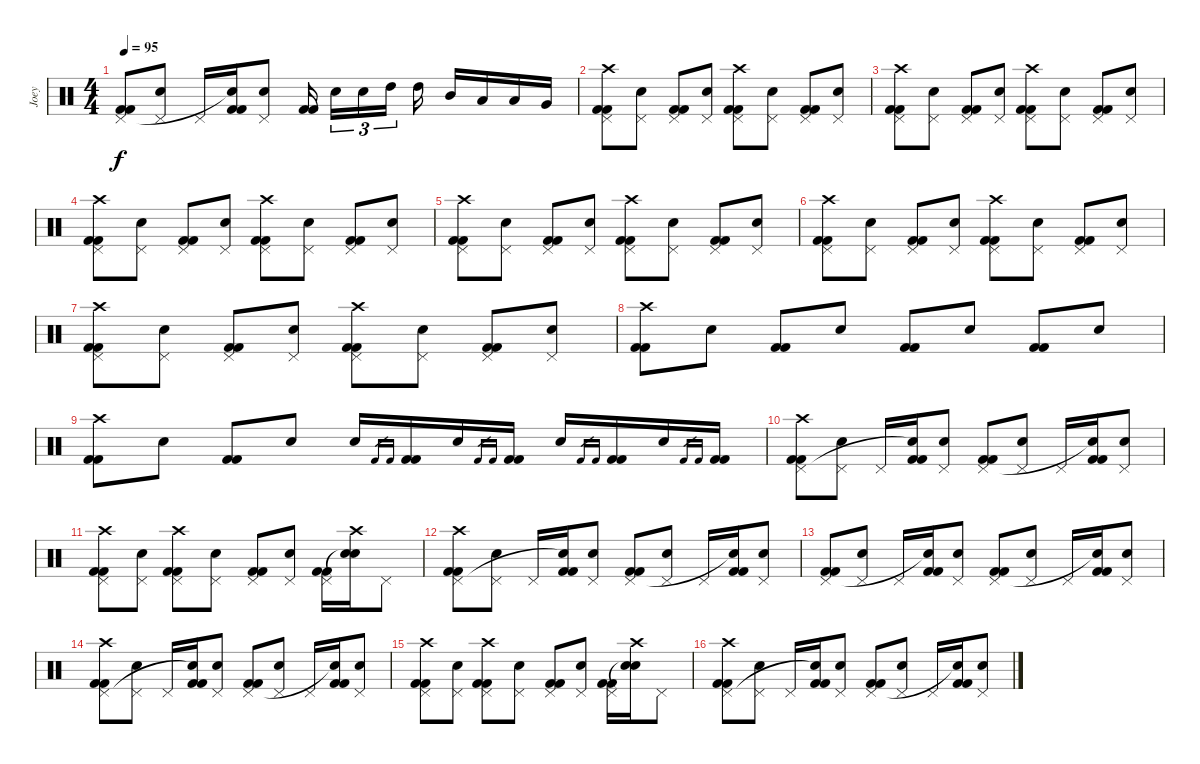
\track ("Joey" "Joey") {instrument percussion}
\staff {score}
\articulation defaults
\ts (4 4)
\tempo 95
\clef neutral
\ks c
("Kick (hit) 2" "Kick (hit) 2" "Pedal Hi-Hat (hit)").8{dy f} ("Electric Snare (hit)" "Pedal Hi-Hat (hit)").8 "Pedal Hi-Hat (hit)".16 ("Kick (hit) 2" "Kick (hit) 2" "Snare (hit)"{t}).16 ("Electric Snare (hit)" "Pedal Hi-Hat (hit)").8 ("Kick (hit) 2" "Kick (hit) 2").16 "Electric Snare (hit)".16{tu (3 2)} "Electric Snare (hit)".16{tu (3 2)} "High Tom (hit)".16{tu (3 2)} "High Tom (hit)".16 "Mid Tom (hit)".16 "Low Tom (hit)".16 "Low Tom (hit)".16 "Very Low Tom (hit)".16 |
("Kick (hit) 2" "Kick (hit) 2" "Crash high (hit)" "Pedal Hi-Hat (hit)").8 ("Electric Snare (hit)" "Pedal Hi-Hat (hit)").8 ("Kick (hit) 2" "Kick (hit) 2" "Pedal Hi-Hat (hit)").8 ("Electric Snare (hit)" "Pedal Hi-Hat (hit)").8 ("Kick (hit) 2" "Kick (hit) 2" "Crash high (hit)" "Pedal Hi-Hat (hit)").8 ("Electric Snare (hit)" "Pedal Hi-Hat (hit)").8 ("Kick (hit) 2" "Kick (hit) 2" "Pedal Hi-Hat (hit)").8 ("Electric Snare (hit)" "Pedal Hi-Hat (hit)").8 |
("Kick (hit) 2" "Kick (hit) 2" "Crash high (hit)" "Pedal Hi-Hat (hit)").8 ("Electric Snare (hit)" "Pedal Hi-Hat (hit)").8 ("Kick (hit) 2" "Kick (hit) 2" "Pedal Hi-Hat (hit)").8 ("Electric Snare (hit)" "Pedal Hi-Hat (hit)").8 ("Kick (hit) 2" "Kick (hit) 2" "Crash high (hit)" "Pedal Hi-Hat (hit)").8 ("Electric Snare (hit)" "Pedal Hi-Hat (hit)").8 ("Kick (hit) 2" "Kick (hit) 2" "Pedal Hi-Hat (hit)").8 ("Electric Snare (hit)" "Pedal Hi-Hat (hit)").8 |
("Kick (hit) 2" "Kick (hit) 2" "Crash high (hit)" "Pedal Hi-Hat (hit)").8 ("Electric Snare (hit)" "Pedal Hi-Hat (hit)").8 ("Kick (hit) 2" "Kick (hit) 2" "Pedal Hi-Hat (hit)").8 ("Electric Snare (hit)" "Pedal Hi-Hat (hit)").8 ("Kick (hit) 2" "Kick (hit) 2" "Crash high (hit)" "Pedal Hi-Hat (hit)").8 ("Electric Snare (hit)" "Pedal Hi-Hat (hit)").8 ("Kick (hit) 2" "Kick (hit) 2" "Pedal Hi-Hat (hit)").8 ("Electric Snare (hit)" "Pedal Hi-Hat (hit)").8 |
("Kick (hit) 2" "Kick (hit) 2" "Crash high (hit)" "Pedal Hi-Hat (hit)").8 ("Electric Snare (hit)" "Pedal Hi-Hat (hit)").8 ("Kick (hit) 2" "Kick (hit) 2" "Pedal Hi-Hat (hit)").8 ("Electric Snare (hit)" "Pedal Hi-Hat (hit)").8 ("Kick (hit) 2" "Kick (hit) 2" "Crash high (hit)" "Pedal Hi-Hat (hit)").8 ("Electric Snare (hit)" "Pedal Hi-Hat (hit)").8 ("Kick (hit) 2" "Kick (hit) 2" "Pedal Hi-Hat (hit)").8 ("Electric Snare (hit)" "Pedal Hi-Hat (hit)").8 |
("Kick (hit) 2" "Kick (hit) 2" "Crash high (hit)" "Pedal Hi-Hat (hit)").8 ("Electric Snare (hit)" "Pedal Hi-Hat (hit)").8 ("Kick (hit) 2" "Kick (hit) 2" "Pedal Hi-Hat (hit)").8 ("Electric Snare (hit)" "Pedal Hi-Hat (hit)").8 ("Kick (hit) 2" "Kick (hit) 2" "Crash high (hit)" "Pedal Hi-Hat (hit)").8 ("Electric Snare (hit)" "Pedal Hi-Hat (hit)").8 ("Kick (hit) 2" "Kick (hit) 2" "Pedal Hi-Hat (hit)").8 ("Electric Snare (hit)" "Pedal Hi-Hat (hit)").8 |
("Kick (hit) 2" "Kick (hit) 2" "Crash high (hit)" "Pedal Hi-Hat (hit)").8 ("Electric Snare (hit)" "Pedal Hi-Hat (hit)").8 ("Kick (hit) 2" "Kick (hit) 2" "Pedal Hi-Hat (hit)").8 ("Electric Snare (hit)" "Pedal Hi-Hat (hit)").8 ("Kick (hit) 2" "Kick (hit) 2" "Crash high (hit)" "Pedal Hi-Hat (hit)").8 ("Electric Snare (hit)" "Pedal Hi-Hat (hit)").8 ("Kick (hit) 2" "Kick (hit) 2" "Pedal Hi-Hat (hit)").8 ("Electric Snare (hit)" "Pedal Hi-Hat (hit)").8 |
("Kick (hit) 2" "Kick (hit) 2" "Crash high (hit)").8 "Electric Snare (hit)".8 ("Kick (hit) 2" "Kick (hit) 2").8 "Electric Snare (hit)".8 ("Kick (hit) 2" "Kick (hit) 2").8 "Electric Snare (hit)".8 ("Kick (hit) 2" "Kick (hit) 2").8 "Electric Snare (hit)".8 |
("Kick (hit) 2" "Kick (hit) 2" "Crash high (hit)").8 "Electric Snare (hit)".8 ("Kick (hit) 2" "Kick (hit) 2").8 "Electric Snare (hit)".8 "Electric Snare (hit)".16 "Kick (hit) 2".16{gr} "Kick (hit) 2".16{gr} ("Kick (hit) 2" "Kick (hit) 2").16 "Electric Snare (hit)".16 "Kick (hit) 2".16{gr} "Kick (hit) 2".16{gr} ("Kick (hit) 2" "Kick (hit) 2").16 "Electric Snare (hit)".16 "Kick (hit) 2".16{gr} "Kick (hit) 2".16{gr} ("Kick (hit) 2" "Kick (hit) 2").16 "Electric Snare (hit)".16 "Kick (hit) 2".16{gr} "Kick (hit) 2".16{gr} ("Kick (hit) 2" "Kick (hit) 2").16 |
("Kick (hit) 2" "Kick (hit) 2" "Pedal Hi-Hat (hit)" "Crash high (hit)").8 ("Electric Snare (hit)" "Pedal Hi-Hat (hit)").8 "Pedal Hi-Hat (hit)".16 ("Kick (hit) 2" "Kick (hit) 2" "Snare (hit)"{t}).16 ("Electric Snare (hit)" "Pedal Hi-Hat (hit)").8 ("Kick (hit) 2" "Kick (hit) 2" "Pedal Hi-Hat (hit)").8 ("Electric Snare (hit)" "Pedal Hi-Hat (hit)").8 "Pedal Hi-Hat (hit)".16 ("Kick (hit) 2" "Kick (hit) 2" "Snare (hit)"{t}).16 ("Electric Snare (hit)" "Pedal Hi-Hat (hit)").8 |
("Kick (hit) 2" "Kick (hit) 2" "Crash high (hit)" "Pedal Hi-Hat (hit)").8 ("Electric Snare (hit)" "Pedal Hi-Hat (hit)").8 ("Kick (hit) 2" "Kick (hit) 2" "Crash high (hit)" "Pedal Hi-Hat (hit)").8 ("Electric Snare (hit)" "Pedal Hi-Hat (hit)").8 ("Kick (hit) 2" "Kick (hit) 2" "Pedal Hi-Hat (hit)").8 ("Electric Snare (hit)" "Pedal Hi-Hat (hit)").8 ("Kick (hit) 2" "Kick (hit) 2" "Pedal Hi-Hat (hit)").16 ("Electric Snare (hit)" "Crash high (hit)" "Snare (hit)"{t}).16 "Pedal Hi-Hat (hit)".8 |
("Kick (hit) 2" "Kick (hit) 2" "Pedal Hi-Hat (hit)" "Crash high (hit)").8 ("Electric Snare (hit)" "Pedal Hi-Hat (hit)").8 "Pedal Hi-Hat (hit)".16 ("Kick (hit) 2" "Kick (hit) 2" "Snare (hit)"{t}).16 ("Electric Snare (hit)" "Pedal Hi-Hat (hit)").8 ("Kick (hit) 2" "Kick (hit) 2" "Pedal Hi-Hat (hit)").8 ("Electric Snare (hit)" "Pedal Hi-Hat (hit)").8 "Pedal Hi-Hat (hit)".16 ("Kick (hit) 2" "Kick (hit) 2" "Snare (hit)"{t}).16 ("Electric Snare (hit)" "Pedal Hi-Hat (hit)").8 |
("Kick (hit) 2" "Kick (hit) 2" "Pedal Hi-Hat (hit)").8 ("Electric Snare (hit)" "Pedal Hi-Hat (hit)").8 "Pedal Hi-Hat (hit)".16 ("Kick (hit) 2" "Kick (hit) 2" "Snare (hit)"{t}).16 ("Electric Snare (hit)" "Pedal Hi-Hat (hit)").8 ("Kick (hit) 2" "Kick (hit) 2" "Pedal Hi-Hat (hit)").8 ("Electric Snare (hit)" "Pedal Hi-Hat (hit)").8 "Pedal Hi-Hat (hit)".16 ("Kick (hit) 2" "Kick (hit) 2" "Snare (hit)"{t}).16 ("Electric Snare (hit)" "Pedal Hi-Hat (hit)").8 |
("Kick (hit) 2" "Kick (hit) 2" "Pedal Hi-Hat (hit)" "Crash high (hit)").8 ("Electric Snare (hit)" "Pedal Hi-Hat (hit)").8 "Pedal Hi-Hat (hit)".16 ("Kick (hit) 2" "Kick (hit) 2" "Snare (hit)"{t}).16 ("Electric Snare (hit)" "Pedal Hi-Hat (hit)").8 ("Kick (hit) 2" "Kick (hit) 2" "Pedal Hi-Hat (hit)").8 ("Electric Snare (hit)" "Pedal Hi-Hat (hit)").8 "Pedal Hi-Hat (hit)".16 ("Kick (hit) 2" "Kick (hit) 2" "Snare (hit)"{t}).16 ("Electric Snare (hit)" "Pedal Hi-Hat (hit)").8 |
("Kick (hit) 2" "Kick (hit) 2" "Crash high (hit)" "Pedal Hi-Hat (hit)").8 ("Electric Snare (hit)" "Pedal Hi-Hat (hit)").8 ("Kick (hit) 2" "Kick (hit) 2" "Crash high (hit)" "Pedal Hi-Hat (hit)").8 ("Electric Snare (hit)" "Pedal Hi-Hat (hit)").8 ("Kick (hit) 2" "Kick (hit) 2" "Pedal Hi-Hat (hit)").8 ("Electric Snare (hit)" "Pedal Hi-Hat (hit)").8 ("Kick (hit) 2" "Kick (hit) 2" "Pedal Hi-Hat (hit)").16 ("Electric Snare (hit)" "Crash high (hit)" "Snare (hit)"{t}).16 "Pedal Hi-Hat (hit)".8 |
("Kick (hit) 2" "Kick (hit) 2" "Pedal Hi-Hat (hit)" "Crash high (hit)").8 ("Electric Snare (hit)" "Pedal Hi-Hat (hit)").8 "Pedal Hi-Hat (hit)".16 ("Kick (hit) 2" "Kick (hit) 2" "Snare (hit)"{t}).16 ("Electric Snare (hit)" "Pedal Hi-Hat (hit)").8 ("Kick (hit) 2" "Kick (hit) 2" "Pedal Hi-Hat (hit)").8 ("Electric Snare (hit)" "Pedal Hi-Hat (hit)").8 "Pedal Hi-Hat (hit)".16 ("Kick (hit) 2" "Kick (hit) 2" "Snare (hit)"{t}).16 ("Electric Snare (hit)" "Pedal Hi-Hat (hit)").8
